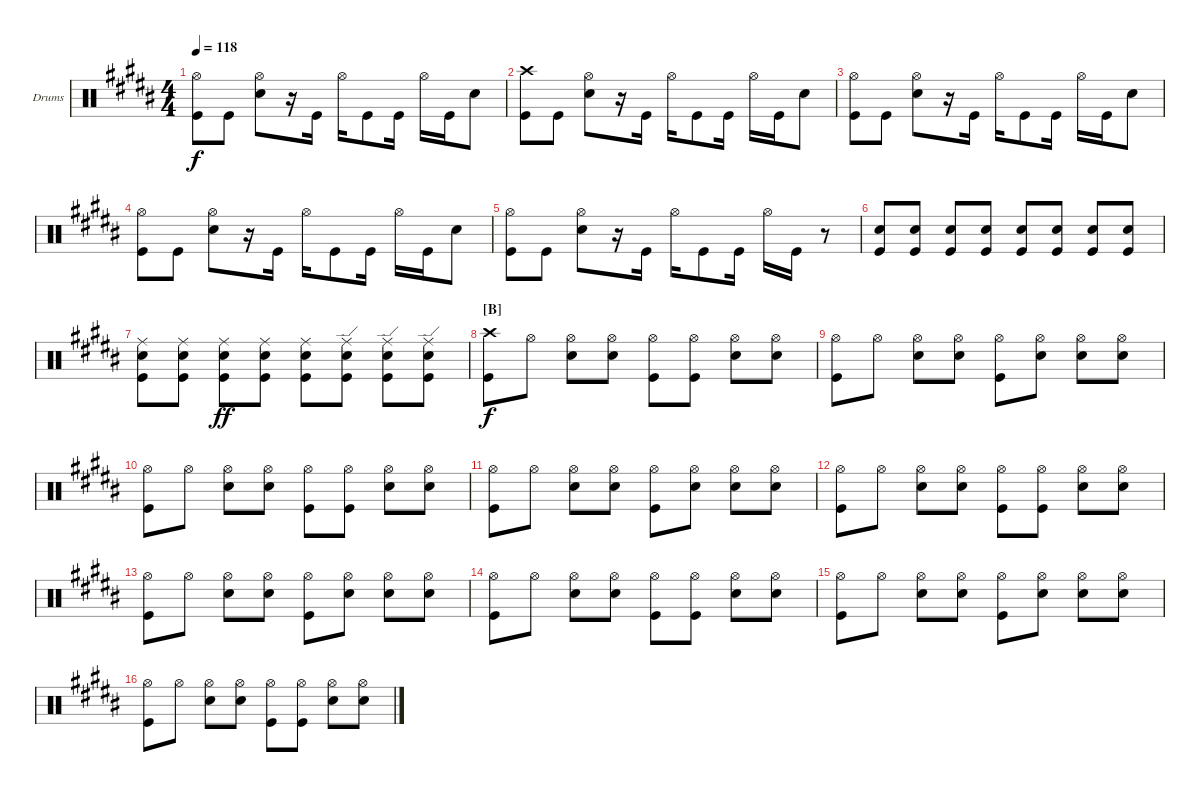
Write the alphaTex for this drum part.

\bracketExtendMode groupsimilarinstruments
\firstSystemTrackNameOrientation horizontal
\otherSystemsTrackNameOrientation horizontal
\track ("Fabrizio Moretti" "Drums") {instrument percussion}
\staff {score}
\articulation defaults
\ts (4 4)
\tempo 118
\clef neutral
\ks b
("Hi-Hat (open)" "Kick (hit)").8{dy f} "Kick (hit)".8 ("Hi-Hat (open)" "Snare (hit) 2").8 r.16 "Kick (hit)".16 "Hi-Hat (open)".16 "Kick (hit)".8 "Kick (hit)".16 "Hi-Hat (open)".16 "Kick (hit)".16 "Snare (hit) 2".8 |
("Kick (hit)" "Crash high (hit)").8 "Kick (hit)".8 ("Hi-Hat (open)" "Snare (hit) 2").8 r.16 "Kick (hit)".16 "Hi-Hat (open)".16 "Kick (hit)".8 "Kick (hit)".16 "Hi-Hat (open)".16 "Kick (hit)".16 "Snare (hit) 2".8 |
("Hi-Hat (open)" "Kick (hit)").8 "Kick (hit)".8 ("Hi-Hat (open)" "Snare (hit) 2").8 r.16 "Kick (hit)".16 "Hi-Hat (open)".16 "Kick (hit)".8 "Kick (hit)".16 "Hi-Hat (open)".16 "Kick (hit)".16 "Snare (hit) 2".8 |
("Hi-Hat (open)" "Kick (hit)").8 "Kick (hit)".8 ("Hi-Hat (open)" "Snare (hit) 2").8 r.16 "Kick (hit)".16 "Hi-Hat (open)".16 "Kick (hit)".8 "Kick (hit)".16 "Hi-Hat (open)".16 "Kick (hit)".16 "Snare (hit) 2".8 |
("Hi-Hat (open)" "Kick (hit)").8 "Kick (hit)".8 ("Hi-Hat (open)" "Snare (hit) 2").8 r.16 "Kick (hit)".16 "Hi-Hat (open)".16 "Kick (hit)".8 "Kick (hit)".16 "Hi-Hat (open)".16 "Kick (hit)".16 r.8 |
("Snare (hit) 2" "Kick (hit)").8 ("Snare (hit) 2" "Kick (hit)").8 ("Snare (hit) 2" "Kick (hit)").8 ("Snare (hit) 2" "Kick (hit)").8 ("Snare (hit) 2" "Kick (hit)").8 ("Snare (hit) 2" "Kick (hit)").8 ("Snare (hit) 2" "Kick (hit)").8 ("Snare (hit) 2" "Kick (hit)").8 |
("Snare (hit) 2" "Kick (hit)" "Ride (middle)").8 ("Snare (hit) 2" "Kick (hit)" "Ride (middle)").8 ("Snare (hit) 2" "Kick (hit)" "Ride (middle)").8{dy ff} ("Snare (hit) 2" "Kick (hit)" "Ride (middle)").8 ("Snare (hit) 2" "Kick (hit)" "Ride (middle)").8 ("Snare (hit) 2" "Kick (hit)" "Ride (edge)").8 ("Snare (hit) 2" "Kick (hit)" "Ride (edge)").8 ("Snare (hit) 2" "Kick (hit)" "Ride (edge)").8 |
\section ("B" "")
("Kick (hit)" "Crash high (hit)").8{dy f} "Hi-Hat (open)".8 ("Hi-Hat (open)" "Snare (hit) 2").8 ("Hi-Hat (open)" "Snare (hit) 2").8 ("Hi-Hat (open)" "Kick (hit)").8 ("Hi-Hat (open)" "Kick (hit)").8 ("Hi-Hat (open)" "Snare (hit) 2").8 ("Hi-Hat (open)" "Snare (hit) 2").8 |
("Hi-Hat (open)" "Kick (hit)").8 "Hi-Hat (open)".8 ("Hi-Hat (open)" "Snare (hit) 2").8 ("Hi-Hat (open)" "Snare (hit) 2").8 ("Kick (hit)" "Hi-Hat (open)").8 ("Hi-Hat (open)" "Snare (hit) 2").8 ("Hi-Hat (open)" "Snare (hit) 2").8 ("Hi-Hat (open)" "Snare (hit) 2").8 |
("Hi-Hat (open)" "Kick (hit)").8 "Hi-Hat (open)".8 ("Hi-Hat (open)" "Snare (hit) 2").8 ("Hi-Hat (open)" "Snare (hit) 2").8 ("Hi-Hat (open)" "Kick (hit)").8 ("Hi-Hat (open)" "Kick (hit)").8 ("Hi-Hat (open)" "Snare (hit) 2").8 ("Hi-Hat (open)" "Snare (hit) 2").8 |
("Hi-Hat (open)" "Kick (hit)").8 "Hi-Hat (open)".8 ("Hi-Hat (open)" "Snare (hit) 2").8 ("Hi-Hat (open)" "Snare (hit) 2").8 ("Kick (hit)" "Hi-Hat (open)").8 ("Hi-Hat (open)" "Snare (hit) 2").8 ("Hi-Hat (open)" "Snare (hit) 2").8 ("Hi-Hat (open)" "Snare (hit) 2").8 |
("Hi-Hat (open)" "Kick (hit)").8 "Hi-Hat (open)".8 ("Hi-Hat (open)" "Snare (hit) 2").8 ("Hi-Hat (open)" "Snare (hit) 2").8 ("Hi-Hat (open)" "Kick (hit)").8 ("Hi-Hat (open)" "Kick (hit)").8 ("Hi-Hat (open)" "Snare (hit) 2").8 ("Hi-Hat (open)" "Snare (hit) 2").8 |
("Hi-Hat (open)" "Kick (hit)").8 "Hi-Hat (open)".8 ("Hi-Hat (open)" "Snare (hit) 2").8 ("Hi-Hat (open)" "Snare (hit) 2").8 ("Kick (hit)" "Hi-Hat (open)").8 ("Hi-Hat (open)" "Snare (hit) 2").8 ("Hi-Hat (open)" "Snare (hit) 2").8 ("Hi-Hat (open)" "Snare (hit) 2").8 |
("Hi-Hat (open)" "Kick (hit)").8 "Hi-Hat (open)".8 ("Hi-Hat (open)" "Snare (hit) 2").8 ("Hi-Hat (open)" "Snare (hit) 2").8 ("Hi-Hat (open)" "Kick (hit)").8 ("Hi-Hat (open)" "Kick (hit)").8 ("Hi-Hat (open)" "Snare (hit) 2").8 ("Hi-Hat (open)" "Snare (hit) 2").8 |
("Hi-Hat (open)" "Kick (hit)").8 "Hi-Hat (open)".8 ("Hi-Hat (open)" "Snare (hit) 2").8 ("Hi-Hat (open)" "Snare (hit) 2").8 ("Kick (hit)" "Hi-Hat (open)").8 ("Hi-Hat (open)" "Snare (hit) 2").8 ("Hi-Hat (open)" "Snare (hit) 2").8 ("Hi-Hat (open)" "Snare (hit) 2").8 |
("Hi-Hat (open)" "Kick (hit)").8 "Hi-Hat (open)".8 ("Hi-Hat (open)" "Snare (hit) 2").8 ("Hi-Hat (open)" "Snare (hit) 2").8 ("Hi-Hat (open)" "Kick (hit)").8 ("Hi-Hat (open)" "Kick (hit)").8 ("Hi-Hat (open)" "Snare (hit) 2").8 ("Hi-Hat (open)" "Snare (hit) 2").8
